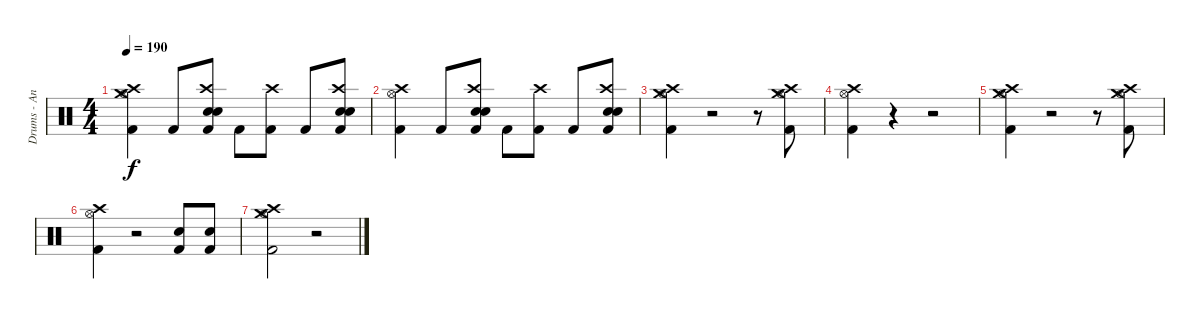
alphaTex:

\track ("Drums - Anders Johansson" "Drums - An") {instrument percussion}
\staff {score}
\articulation defaults
\ts (4 4)
\tempo 190
\clef neutral
\ks c
("Hi-Hat (open)" "Kick (hit) 2" "Crash medium (hit)" "Crash high (hit)").4{dy f} "Kick (hit) 2".8 ("Electric Snare (hit)" "Snare (hit) 2" "Kick (hit) 2" "Crash high (hit)").8 "Kick (hit) 2".8 ("Kick (hit) 2" "Crash high (hit)").8 "Kick (hit) 2".8 ("Electric Snare (hit)" "Snare (hit) 2" "Kick (hit) 2" "Crash high (hit)").8 |
("Hi-Hat (open)" "Kick (hit) 2" "Crash high (hit)").4 "Kick (hit) 2".8 ("Electric Snare (hit)" "Snare (hit) 2" "Kick (hit) 2" "Crash high (hit)").8 "Kick (hit) 2".8 ("Kick (hit) 2" "Crash high (hit)").8 "Kick (hit) 2".8 ("Electric Snare (hit)" "Snare (hit) 2" "Kick (hit) 2" "Crash high (hit)").8 |
("Hi-Hat (open)" "Kick (hit) 2" "Crash medium (hit)" "Crash high (hit)").4 r.2 r.8 ("Hi-Hat (open)" "Kick (hit) 2" "Crash medium (hit)" "Crash high (hit)").8 |
("Hi-Hat (open)" "Kick (hit) 2" "Crash high (hit)").4 r.4 r.2 |
("Hi-Hat (open)" "Kick (hit) 2" "Crash medium (hit)" "Crash high (hit)").4 r.2 r.8 ("Hi-Hat (open)" "Kick (hit) 2" "Crash medium (hit)" "Crash high (hit)").8 |
("Hi-Hat (open)" "Kick (hit) 2" "Crash high (hit)").4 r.2 ("Snare (hit) 2" "Kick (hit) 2").8 ("Snare (hit) 2" "Kick (hit) 2").8 |
("Hi-Hat (open)" "Kick (hit) 2" "Crash medium (hit)" "Crash high (hit)").2 r.2
